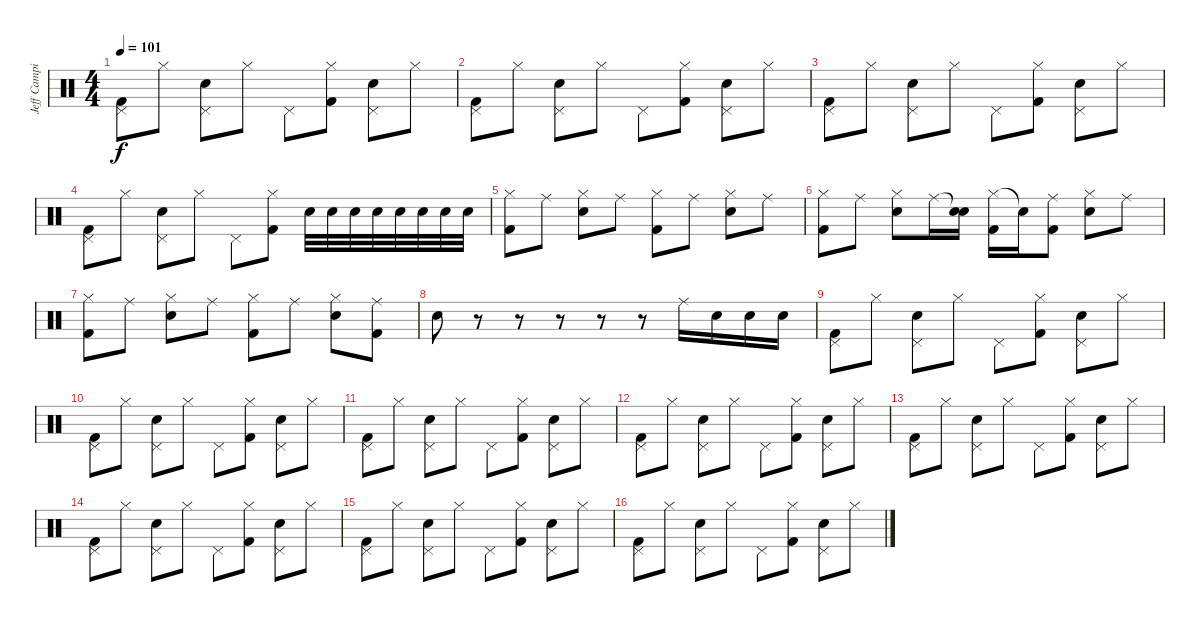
\track ("Jeff Campitelli " "Jeff Campi") {instrument percussion}
\staff {score}
\articulation defaults
\ts (4 4)
\tempo 101
\clef neutral
\ks c
("Pedal Hi-Hat (hit)" "Kick (hit) 2").8{dy f} "Hi-Hat (closed)".8 ("Pedal Hi-Hat (hit)" "Electric Snare (hit)").8 "Hi-Hat (closed)".8 "Pedal Hi-Hat (hit)".8 ("Hi-Hat (closed)" "Kick (hit) 2").8 ("Pedal Hi-Hat (hit)" "Electric Snare (hit)").8 "Hi-Hat (closed)".8 |
("Pedal Hi-Hat (hit)" "Kick (hit) 2").8 "Hi-Hat (closed)".8 ("Pedal Hi-Hat (hit)" "Electric Snare (hit)").8 "Hi-Hat (closed)".8 "Pedal Hi-Hat (hit)".8 ("Hi-Hat (closed)" "Kick (hit) 2").8 ("Pedal Hi-Hat (hit)" "Electric Snare (hit)").8 "Hi-Hat (closed)".8 |
("Pedal Hi-Hat (hit)" "Kick (hit) 2").8 "Hi-Hat (closed)".8 ("Pedal Hi-Hat (hit)" "Electric Snare (hit)").8 "Hi-Hat (closed)".8 "Pedal Hi-Hat (hit)".8 ("Hi-Hat (closed)" "Kick (hit) 2").8 ("Pedal Hi-Hat (hit)" "Electric Snare (hit)").8 "Hi-Hat (closed)".8 |
("Pedal Hi-Hat (hit)" "Kick (hit) 2").8 "Hi-Hat (closed)".8 ("Pedal Hi-Hat (hit)" "Electric Snare (hit)").8 "Hi-Hat (closed)".8 "Pedal Hi-Hat (hit)".8 ("Hi-Hat (closed)" "Kick (hit) 2").8 "Electric Snare (hit)".32 "Electric Snare (hit)".32 "Electric Snare (hit)".32 "Electric Snare (hit)".32 "Electric Snare (hit)".32 "Electric Snare (hit)".32 "Electric Snare (hit)".32 "Electric Snare (hit)".32 |
("Hi-Hat (closed)" "Kick (hit) 2").8 "Ride (middle)".8 ("Hi-Hat (closed)" "Electric Snare (hit)").8 "Ride (middle)".8 ("Hi-Hat (closed)" "Kick (hit) 2").8 "Ride (middle)".8 ("Hi-Hat (closed)" "Electric Snare (hit)").8 "Ride (middle)".8 |
("Hi-Hat (closed)" "Kick (hit) 2").8 "Ride (middle)".8 ("Hi-Hat (closed)" "Electric Snare (hit)").8 "Ride (middle)".16 ("Snare (hit)"{t} "Electric Snare (hit)").16 ("Hi-Hat (closed)" "Kick (hit) 2").16 "Snare (hit)"{t}.16 ("Ride (middle)" "Kick (hit) 2").8 ("Hi-Hat (closed)" "Electric Snare (hit)").8 "Ride (middle)".8 |
("Hi-Hat (closed)" "Kick (hit) 2").8 "Ride (middle)".8 ("Hi-Hat (closed)" "Electric Snare (hit)").8 "Ride (middle)".8 ("Hi-Hat (closed)" "Kick (hit) 2").8 "Ride (middle)".8 ("Hi-Hat (closed)" "Electric Snare (hit)").8 ("Ride (middle)" "Kick (hit) 2").8 |
"Electric Snare (hit)".8 r.8 r.8 r.8 r.8 r.8 "Ride (middle)".16 "Electric Snare (hit)".16 "Electric Snare (hit)".16 "Electric Snare (hit)".16 |
("Pedal Hi-Hat (hit)" "Kick (hit) 2").8 "Hi-Hat (closed)".8 ("Pedal Hi-Hat (hit)" "Electric Snare (hit)").8 "Hi-Hat (closed)".8 "Pedal Hi-Hat (hit)".8 ("Hi-Hat (closed)" "Kick (hit) 2").8 ("Pedal Hi-Hat (hit)" "Electric Snare (hit)").8 "Hi-Hat (closed)".8 |
("Pedal Hi-Hat (hit)" "Kick (hit) 2").8 "Hi-Hat (closed)".8 ("Pedal Hi-Hat (hit)" "Electric Snare (hit)").8 "Hi-Hat (closed)".8 "Pedal Hi-Hat (hit)".8 ("Hi-Hat (closed)" "Kick (hit) 2").8 ("Pedal Hi-Hat (hit)" "Electric Snare (hit)").8 "Hi-Hat (closed)".8 |
("Pedal Hi-Hat (hit)" "Kick (hit) 2").8 "Hi-Hat (closed)".8 ("Pedal Hi-Hat (hit)" "Electric Snare (hit)").8 "Hi-Hat (closed)".8 "Pedal Hi-Hat (hit)".8 ("Hi-Hat (closed)" "Kick (hit) 2").8 ("Pedal Hi-Hat (hit)" "Electric Snare (hit)").8 "Hi-Hat (closed)".8 |
("Pedal Hi-Hat (hit)" "Kick (hit) 2").8 "Hi-Hat (closed)".8 ("Pedal Hi-Hat (hit)" "Electric Snare (hit)").8 "Hi-Hat (closed)".8 "Pedal Hi-Hat (hit)".8 ("Hi-Hat (closed)" "Kick (hit) 2").8 ("Pedal Hi-Hat (hit)" "Electric Snare (hit)").8 "Hi-Hat (closed)".8 |
("Pedal Hi-Hat (hit)" "Kick (hit) 2").8 "Hi-Hat (closed)".8 ("Pedal Hi-Hat (hit)" "Electric Snare (hit)").8 "Hi-Hat (closed)".8 "Pedal Hi-Hat (hit)".8 ("Hi-Hat (closed)" "Kick (hit) 2").8 ("Pedal Hi-Hat (hit)" "Electric Snare (hit)").8 "Hi-Hat (closed)".8 |
("Pedal Hi-Hat (hit)" "Kick (hit) 2").8 "Hi-Hat (closed)".8 ("Pedal Hi-Hat (hit)" "Electric Snare (hit)").8 "Hi-Hat (closed)".8 "Pedal Hi-Hat (hit)".8 ("Hi-Hat (closed)" "Kick (hit) 2").8 ("Pedal Hi-Hat (hit)" "Electric Snare (hit)").8 "Hi-Hat (closed)".8 |
("Pedal Hi-Hat (hit)" "Kick (hit) 2").8 "Hi-Hat (closed)".8 ("Pedal Hi-Hat (hit)" "Electric Snare (hit)").8 "Hi-Hat (closed)".8 "Pedal Hi-Hat (hit)".8 ("Hi-Hat (closed)" "Kick (hit) 2").8 ("Pedal Hi-Hat (hit)" "Electric Snare (hit)").8 "Hi-Hat (closed)".8 |
("Pedal Hi-Hat (hit)" "Kick (hit) 2").8 "Hi-Hat (closed)".8 ("Pedal Hi-Hat (hit)" "Electric Snare (hit)").8 "Hi-Hat (closed)".8 "Pedal Hi-Hat (hit)".8 ("Hi-Hat (closed)" "Kick (hit) 2").8 ("Pedal Hi-Hat (hit)" "Electric Snare (hit)").8 "Hi-Hat (closed)".8
